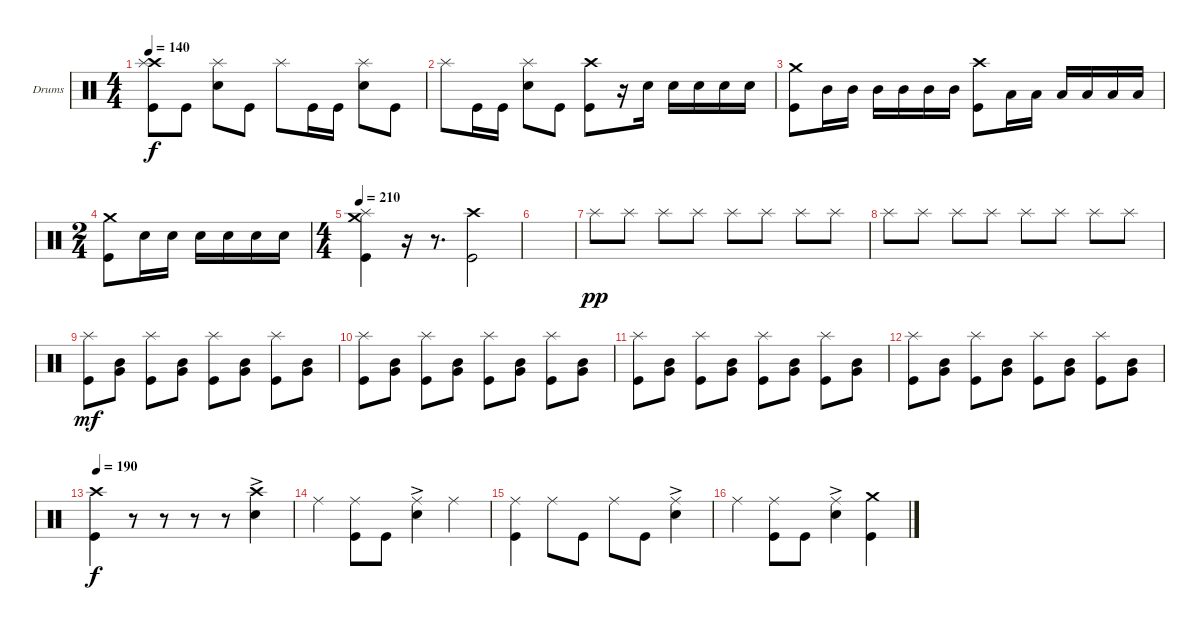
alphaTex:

\defaultSystemsLayout 4
\bracketExtendMode groupsimilarinstruments
\firstSystemTrackNameOrientation horizontal
\otherSystemsTrackNameOrientation horizontal
\track ("Drumkit" "Drums") {instrument percussion}
\staff {score}
\articulation defaults
\ts (4 4)
\tempo 140
\clef neutral
\ks c
("Kick (hit)" "Crash high (hit)" "Splash (hit)").8{dy f} "Kick (hit)".8 ("Snare (hit) 2" "Splash (hit)").8 "Kick (hit)".8 "Splash (hit)".8 "Kick (hit)".16 "Kick (hit)".16 ("Snare (hit) 2" "Splash (hit)").8 "Kick (hit)".8 |
"Splash (hit)".8 "Kick (hit)".16 "Kick (hit)".16 ("Snare (hit) 2" "Splash (hit)").8 "Kick (hit)".8 ("Kick (hit)" "Crash high (hit)").8 r.16 "Snare (hit) 2".16 "Snare (hit) 2".16 "Snare (hit) 2".16 "Snare (hit) 2".16 "Snare (hit) 2".16 |
("Kick (hit)" "Crash medium (hit)").8 "Mid Tom (hit)".16 "Mid Tom (hit)".16 "Mid Tom (hit)".16 "Mid Tom (hit)".16 "Mid Tom (hit)".16 "Mid Tom (hit)".16 ("Kick (hit)" "Crash high (hit)").8 "Low Tom (hit)".16 "Low Tom (hit)".16 "Low Tom (hit)".16 "Low Tom (hit)".16 "Low Tom (hit)".16 "Low Tom (hit)".16 |
\ts (2 4)
("Kick (hit)" "Crash medium (hit)").8 "Snare (hit) 2".16 "Snare (hit) 2".16 "Snare (hit) 2".16 "Snare (hit) 2".16 "Snare (hit) 2".16 "Snare (hit) 2".16 |
\ts (4 4)
\tempo (210 0.00625)
("Kick (hit)" "Splash (hit)" "Crash medium (hit)").4 r.16 r.8{d} ("Kick (hit)" "Crash high (hit)").2 |
|
"Splash (hit)".8{dy pp} "Splash (hit)".8 "Splash (hit)".8 "Splash (hit)".8 "Splash (hit)".8 "Splash (hit)".8 "Splash (hit)".8 "Splash (hit)".8 |
"Splash (hit)".8 "Splash (hit)".8 "Splash (hit)".8 "Splash (hit)".8 "Splash (hit)".8 "Splash (hit)".8 "Splash (hit)".8 "Splash (hit)".8 |
("Kick (hit)" "Splash (hit)").8{dy mf} ("Mid Tom (hit)" "Very Low Tom (hit)").8 ("Kick (hit)" "Splash (hit)").8 ("Mid Tom (hit)" "Very Low Tom (hit)").8 ("Kick (hit)" "Splash (hit)").8 ("Mid Tom (hit)" "Very Low Tom (hit)").8 ("Kick (hit)" "Splash (hit)").8 ("Mid Tom (hit)" "Very Low Tom (hit)").8 |
("Kick (hit)" "Splash (hit)").8 ("Mid Tom (hit)" "Very Low Tom (hit)").8 ("Kick (hit)" "Splash (hit)").8 ("Mid Tom (hit)" "Very Low Tom (hit)").8 ("Kick (hit)" "Splash (hit)").8 ("Mid Tom (hit)" "Very Low Tom (hit)").8 ("Kick (hit)" "Splash (hit)").8 ("Mid Tom (hit)" "Very Low Tom (hit)").8 |
("Kick (hit)" "Splash (hit)").8 ("Mid Tom (hit)" "Very Low Tom (hit)").8 ("Kick (hit)" "Splash (hit)").8 ("Mid Tom (hit)" "Very Low Tom (hit)").8 ("Kick (hit)" "Splash (hit)").8 ("Mid Tom (hit)" "Very Low Tom (hit)").8 ("Kick (hit)" "Splash (hit)").8 ("Mid Tom (hit)" "Very Low Tom (hit)").8 |
("Kick (hit)" "Splash (hit)").8 ("Mid Tom (hit)" "Very Low Tom (hit)").8 ("Kick (hit)" "Splash (hit)").8 ("Mid Tom (hit)" "Very Low Tom (hit)").8 ("Kick (hit)" "Splash (hit)").8 ("Mid Tom (hit)" "Very Low Tom (hit)").8 ("Kick (hit)" "Splash (hit)").8 ("Mid Tom (hit)" "Very Low Tom (hit)").8 |
\tempo (190 0.00625)
("Kick (hit)" "Crash high (hit)").4{dy f} r.8 r.8 r.8 r.8 ("Snare (hit) 2"{ac} "Crash high (hit)").4 |
"Ride (middle)".4 ("Kick (hit)" "Ride (middle)").8 "Kick (hit)".8 ("Snare (hit) 2"{ac} "Ride (middle)").4 "Ride (middle)".4 |
("Kick (hit)" "Ride (middle)").4 "Ride (middle)".8 "Kick (hit)".8 "Ride (middle)".8 "Kick (hit)".8 ("Snare (hit) 2"{ac} "Ride (middle)").4 |
"Ride (middle)".4 ("Kick (hit)" "Ride (middle)").8 "Kick (hit)".8 ("Snare (hit) 2"{ac} "Ride (middle)").4 ("Kick (hit)" "Crash medium (hit)").4
